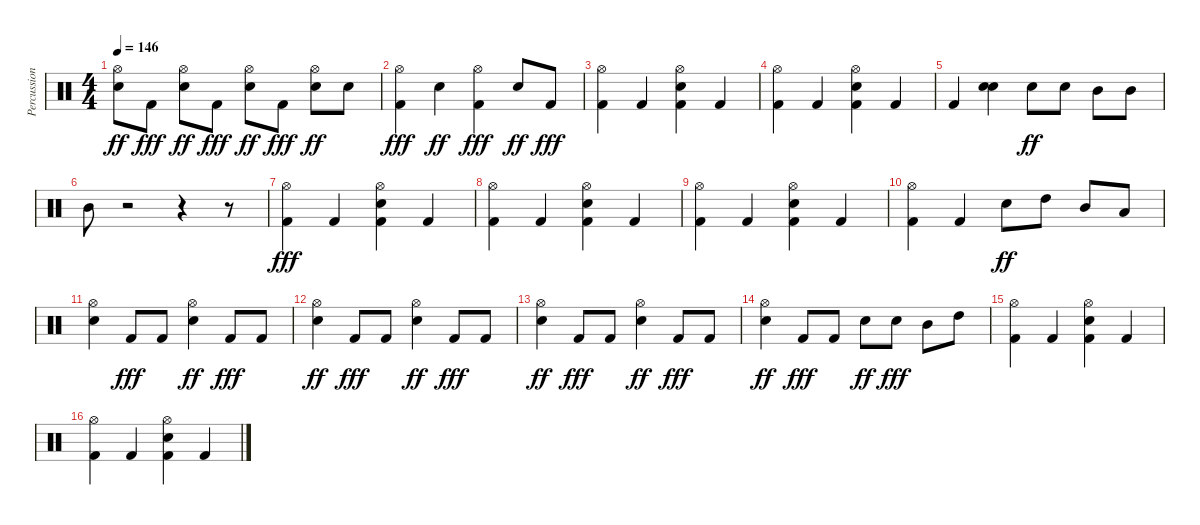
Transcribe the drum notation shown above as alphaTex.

\track ("Percussions" "Percussion") {instrument percussion}
\staff {score}
\articulation defaults
\ts (4 4)
\tempo 146
\clef neutral
\ks c
("Hi-Hat (open)" "Snare (hit) 2").8{dy ff} "Kick (hit) 2".8{dy fff} ("Hi-Hat (open)" "Snare (hit) 2").8{dy ff} "Kick (hit) 2".8{dy fff} ("Hi-Hat (open)" "Snare (hit) 2").8{dy ff} "Kick (hit) 2".8{dy fff} ("Hi-Hat (open)" "Snare (hit) 2").8{dy ff} "Snare (hit) 2".8 |
("Hi-Hat (open)" "Kick (hit) 2").4{dy fff} "Snare (hit) 2".4{dy ff} ("Hi-Hat (open)" "Kick (hit) 2").4{dy fff} "Snare (hit) 2".8{dy ff} "Kick (hit) 2".8{dy fff} |
("Hi-Hat (open)" "Kick (hit) 2").4 "Kick (hit) 2".4 ("Hi-Hat (open)" "Snare (hit) 2" "Kick (hit) 2").4 "Kick (hit) 2".4 |
("Hi-Hat (open)" "Kick (hit) 2").4 "Kick (hit) 2".4 ("Hi-Hat (open)" "Snare (hit) 2" "Kick (hit) 2").4 "Kick (hit) 2".4 |
"Kick (hit) 2".4 ("Snare (hit) 2" "Snare (hit) 2").4{bd 480} "Snare (hit) 2".8{dy ff} "Snare (hit) 2".8 "Mid Tom (hit)".8 "Mid Tom (hit)".8 |
"Mid Tom (hit)".8 r.2 r.4 r.8 |
("Hi-Hat (open)" "Kick (hit) 2").4{dy fff} "Kick (hit) 2".4 ("Hi-Hat (open)" "Snare (hit) 2" "Kick (hit) 2").4 "Kick (hit) 2".4 |
("Hi-Hat (open)" "Kick (hit) 2").4 "Kick (hit) 2".4 ("Hi-Hat (open)" "Snare (hit) 2" "Kick (hit) 2").4 "Kick (hit) 2".4 |
("Hi-Hat (open)" "Kick (hit) 2").4 "Kick (hit) 2".4 ("Hi-Hat (open)" "Snare (hit) 2" "Kick (hit) 2").4 "Kick (hit) 2".4 |
("Hi-Hat (open)" "Kick (hit) 2").4 "Kick (hit) 2".4 "Snare (hit) 2".8{dy ff} "High Tom (hit)".8 "Mid Tom (hit)".8 "Low Tom (hit)".8 |
("Hi-Hat (open)" "Snare (hit) 2").4 "Kick (hit) 2".8{dy fff} "Kick (hit) 2".8 ("Hi-Hat (open)" "Snare (hit) 2").4{dy ff} "Kick (hit) 2".8{dy fff} "Kick (hit) 2".8 |
("Hi-Hat (open)" "Snare (hit) 2").4{dy ff} "Kick (hit) 2".8{dy fff} "Kick (hit) 2".8 ("Hi-Hat (open)" "Snare (hit) 2").4{dy ff} "Kick (hit) 2".8{dy fff} "Kick (hit) 2".8 |
("Hi-Hat (open)" "Snare (hit) 2").4{dy ff} "Kick (hit) 2".8{dy fff} "Kick (hit) 2".8 ("Hi-Hat (open)" "Snare (hit) 2").4{dy ff} "Kick (hit) 2".8{dy fff} "Kick (hit) 2".8 |
("Hi-Hat (open)" "Snare (hit) 2").4{dy ff} "Kick (hit) 2".8{dy fff} "Kick (hit) 2".8 "Snare (hit) 2".8{dy ff} "Snare (hit) 2".8{dy fff} "Mid Tom (hit)".8 "High Tom (hit)".8 |
("Hi-Hat (open)" "Kick (hit) 2").4 "Kick (hit) 2".4 ("Hi-Hat (open)" "Snare (hit) 2" "Kick (hit) 2").4 "Kick (hit) 2".4 |
("Hi-Hat (open)" "Kick (hit) 2").4 "Kick (hit) 2".4 ("Hi-Hat (open)" "Snare (hit) 2" "Kick (hit) 2").4 "Kick (hit) 2".4
